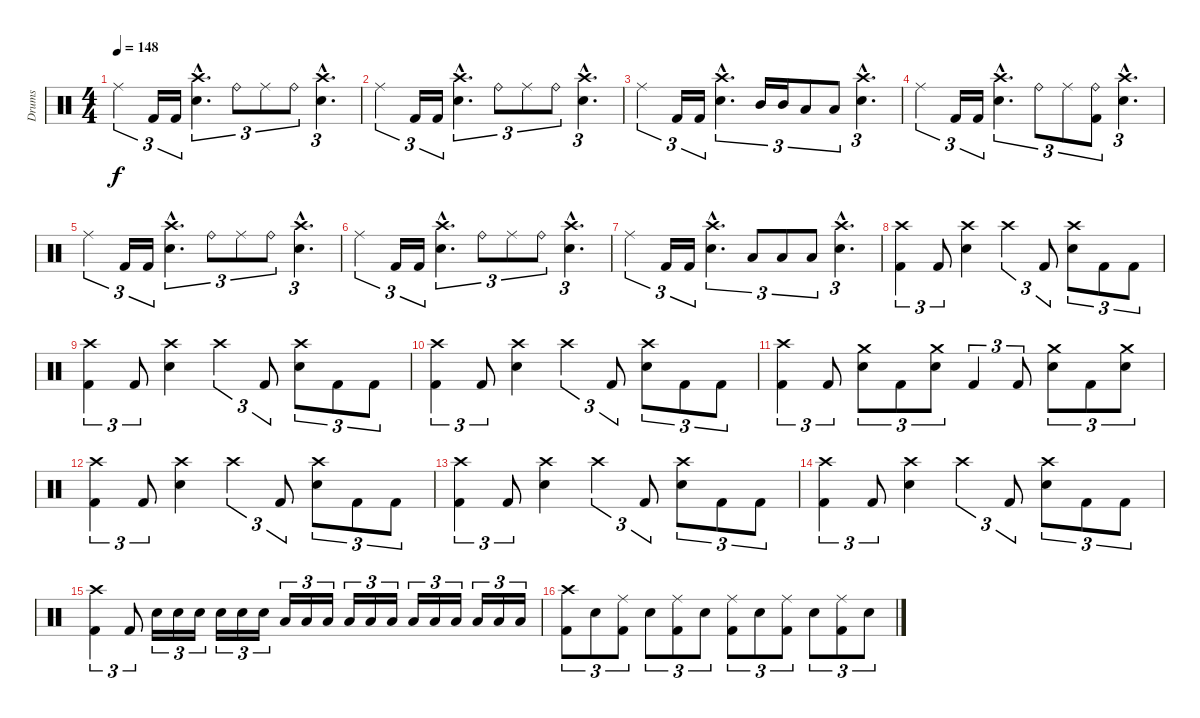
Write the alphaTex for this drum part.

\track ("Drums" "Drums") {instrument percussion}
\staff {score}
\articulation defaults
\ts (4 4)
\tempo 148
\clef neutral
\ks c "Ride (middle)".4{tu (3 2) dy f} "Kick (hit) 2".16{tu (3 2)} "Kick (hit) 2".16{tu (3 2)}
("Crash high (hit)"{hac} "Electric Snare (hit)"{hac}).4{d tu (3 2)} "Ride (bell)".8{tu (3 2)} "Ride (middle)".8{tu (3 2)} "Ride (bell)".8{tu (3 2)} ("Crash high (hit)"{hac} "Electric Snare (hit)"{hac}).4{d tu (3 2)} |
"Ride (middle)".4{tu (3 2)} "Kick (hit) 2".16{tu (3 2)} "Kick (hit) 2".16{tu (3 2)} ("Crash high (hit)"{hac} "Electric Snare (hit)"{hac}).4{d tu (3 2)} "Ride (bell)".8{tu (3 2)} "Ride (middle)".8{tu (3 2)} "Ride (bell)".8{tu (3 2)} ("Crash high (hit)"{hac} "Electric Snare (hit)"{hac}).4{d tu (3 2)} |
"Ride (middle)".4{tu (3 2)} "Kick (hit) 2".16{tu (3 2)} "Kick (hit) 2".16{tu (3 2)} ("Crash high (hit)"{hac} "Electric Snare (hit)"{hac}).4{d tu (3 2)} "Mid Tom (hit)".16{tu (3 2)} "Mid Tom (hit)".16{tu (3 2)} "Low Tom (hit)".8{tu (3 2)} "Low Floor Tom (hit)".8{tu (3 2)} ("Crash high (hit)"{hac} "Electric Snare (hit)"{hac}).4{d tu (3 2)} |
"Ride (middle)".4{tu (3 2)} "Kick (hit) 2".16{tu (3 2)} "Kick (hit) 2".16{tu (3 2)} ("Crash high (hit)"{hac} "Electric Snare (hit)"{hac}).4{d tu (3 2)} "Ride (bell)".8{tu (3 2)} "Ride (middle)".8{tu (3 2)} ("Ride (bell)" "Kick (hit) 2").8{tu (3 2)} ("Crash high (hit)"{hac} "Electric Snare (hit)"{hac}).4{d tu (3 2)} |
"Ride (middle)".4{tu (3 2)} "Kick (hit) 2".16{tu (3 2)} "Kick (hit) 2".16{tu (3 2)} ("Crash high (hit)"{hac} "Electric Snare (hit)"{hac}).4{d tu (3 2)} "Ride (bell)".8{tu (3 2)} "Ride (middle)".8{tu (3 2)} "Ride (bell)".8{tu (3 2)} ("Crash high (hit)"{hac} "Electric Snare (hit)"{hac}).4{d tu (3 2)} |
"Ride (middle)".4{tu (3 2)} "Kick (hit) 2".16{tu (3 2)} "Kick (hit) 2".16{tu (3 2)} ("Crash high (hit)"{hac} "Electric Snare (hit)"{hac}).4{d tu (3 2)} "Ride (bell)".8{tu (3 2)} "Ride (middle)".8{tu (3 2)} "Ride (bell)".8{tu (3 2)} ("Crash high (hit)"{hac} "Electric Snare (hit)"{hac}).4{d tu (3 2)} |
"Ride (middle)".4{tu (3 2)} "Kick (hit) 2".16{tu (3 2)} "Kick (hit) 2".16{tu (3 2)} ("Crash high (hit)"{hac} "Electric Snare (hit)"{hac}).4{d tu (3 2)} "Low Floor Tom (hit)".8{tu (3 2)} "Low Floor Tom (hit)".8{tu (3 2)} "Low Floor Tom (hit)".8{tu (3 2)} ("Crash high (hit)"{hac} "Electric Snare (hit)"{hac}).4{d tu (3 2)} |
("Crash high (hit)" "Kick (hit) 2").4{tu (3 2)} "Kick (hit) 2".8{tu (3 2)} ("Crash high (hit)" "Electric Snare (hit)").4 "Crash high (hit)".4{tu (3 2)} "Kick (hit) 2".8{tu (3 2)} ("Crash high (hit)" "Electric Snare (hit)").8{tu (3 2)} "Kick (hit) 2".8{tu (3 2)} "Kick (hit) 2".8{tu (3 2)} |
("Crash high (hit)" "Kick (hit) 2").4{tu (3 2)} "Kick (hit) 2".8{tu (3 2)} ("Crash high (hit)" "Electric Snare (hit)").4 "Crash high (hit)".4{tu (3 2)} "Kick (hit) 2".8{tu (3 2)} ("Crash high (hit)" "Electric Snare (hit)").8{tu (3 2)} "Kick (hit) 2".8{tu (3 2)} "Kick (hit) 2".8{tu (3 2)} |
("Crash high (hit)" "Kick (hit) 2").4{tu (3 2)} "Kick (hit) 2".8{tu (3 2)} ("Crash high (hit)" "Electric Snare (hit)").4 "Crash high (hit)".4{tu (3 2)} "Kick (hit) 2".8{tu (3 2)} ("Crash high (hit)" "Electric Snare (hit)").8{tu (3 2)} "Kick (hit) 2".8{tu (3 2)} "Kick (hit) 2".8{tu (3 2)} |
("Crash high (hit)" "Kick (hit) 2").4{tu (3 2)} "Kick (hit) 2".8{tu (3 2)} ("Crash medium (hit)" "Electric Snare (hit)").8{tu (3 2)} "Kick (hit) 2".8{tu (3 2)} ("Crash medium (hit)" "Electric Snare (hit)").8{tu (3 2)} "Kick (hit) 2".4{tu (3 2)} "Kick (hit) 2".8{tu (3 2)} ("Crash medium (hit)" "Electric Snare (hit)").8{tu (3 2)} "Kick (hit) 2".8{tu (3 2)} ("Crash medium (hit)" "Electric Snare (hit)").8{tu (3 2)} |
("Crash high (hit)" "Kick (hit) 2").4{tu (3 2)} "Kick (hit) 2".8{tu (3 2)} ("Crash high (hit)" "Electric Snare (hit)").4 "Crash high (hit)".4{tu (3 2)} "Kick (hit) 2".8{tu (3 2)} ("Crash high (hit)" "Electric Snare (hit)").8{tu (3 2)} "Kick (hit) 2".8{tu (3 2)} "Kick (hit) 2".8{tu (3 2)} |
("Crash high (hit)" "Kick (hit) 2").4{tu (3 2)} "Kick (hit) 2".8{tu (3 2)} ("Crash high (hit)" "Electric Snare (hit)").4 "Crash high (hit)".4{tu (3 2)} "Kick (hit) 2".8{tu (3 2)} ("Crash high (hit)" "Electric Snare (hit)").8{tu (3 2)} "Kick (hit) 2".8{tu (3 2)} "Kick (hit) 2".8{tu (3 2)} |
("Crash high (hit)" "Kick (hit) 2").4{tu (3 2)} "Kick (hit) 2".8{tu (3 2)} ("Crash high (hit)" "Electric Snare (hit)").4 "Crash high (hit)".4{tu (3 2)} "Kick (hit) 2".8{tu (3 2)} ("Crash high (hit)" "Electric Snare (hit)").8{tu (3 2)} "Kick (hit) 2".8{tu (3 2)} "Kick (hit) 2".8{tu (3 2)} |
("Crash high (hit)" "Kick (hit) 2").4{tu (3 2)} "Kick (hit) 2".8{tu (3 2)} "Electric Snare (hit)".16{tu (3 2)} "Electric Snare (hit)".16{tu (3 2)} "Electric Snare (hit)".16{tu (3 2)} "Electric Snare (hit)".16{tu (3 2)} "Electric Snare (hit)".16{tu (3 2)} "Electric Snare (hit)".16{tu (3 2)} "Low Tom (hit)".16{tu (3 2)} "Low Tom (hit)".16{tu (3 2)} "Low Tom (hit)".16{tu (3 2)} "Low Tom (hit)".16{tu (3 2)} "Low Tom (hit)".16{tu (3 2)} "Low Tom (hit)".16{tu (3 2)} "Low Floor Tom (hit)".16{tu (3 2)} "Low Floor Tom (hit)".16{tu (3 2)} "Low Floor Tom (hit)".16{tu (3 2)} "Low Floor Tom (hit)".16{tu (3 2)} "Low Floor Tom (hit)".16{tu (3 2)} "Low Floor Tom (hit)".16{tu (3 2)} |
("Crash high (hit)" "Kick (hit) 2").8{tu (3 2)} "Electric Snare (hit)".8{tu (3 2)} ("Ride (middle)" "Kick (hit) 2").8{tu (3 2)} "Electric Snare (hit)".8{tu (3 2)} ("Ride (middle)" "Kick (hit) 2").8{tu (3 2)} "Electric Snare (hit)".8{tu (3 2)} ("Ride (middle)" "Kick (hit) 2").8{tu (3 2)} "Electric Snare (hit)".8{tu (3 2)} ("Ride (middle)" "Kick (hit) 2").8{tu (3 2)} "Electric Snare (hit)".8{tu (3 2)} ("Ride (middle)" "Kick (hit) 2").8{tu (3 2)} "Electric Snare (hit)".8{tu (3 2)}
